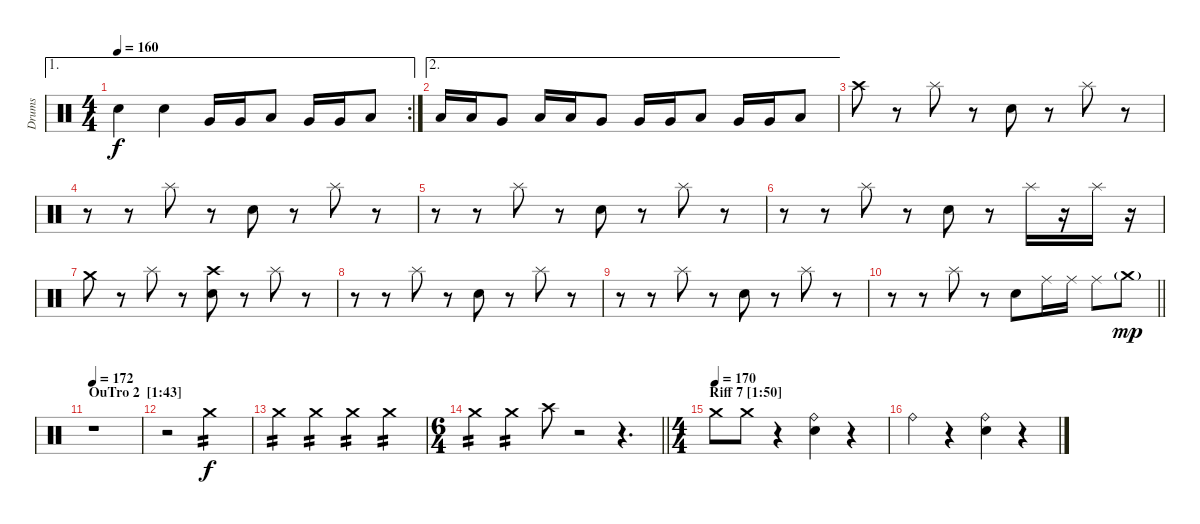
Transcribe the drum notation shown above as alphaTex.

\track ("Drums" "Drums") {instrument percussion}
\staff {score}
\articulation defaults
\ae 1
\rc 2
\ts (4 4)
\tempo 160
\clef neutral
\ks c "Electric Snare (hit)".4{dy f} "Electric Snare (hit)".4 "Very Low Tom (hit)".16 "Very Low Tom (hit)".16 "Low Floor Tom (hit)".8 "Very Low Tom (hit)".16 "Very Low Tom (hit)".16 "Low Floor Tom (hit)".8
|
\ae 2 "Low Tom (hit)".16 "Low Tom (hit)".16 "Very Low Tom (hit)".8 "Low Tom (hit)".16 "Low Tom (hit)".16 "Very Low Tom (hit)".8 "Very Low Tom (hit)".16 "Very Low Tom (hit)".16 "Low Floor Tom (hit)".8 "Very Low Tom (hit)".16 "Very Low Tom (hit)".16 "Low Floor Tom (hit)".8
|
"Crash high (hit)".8 r.8 "Splash (hit)".8 r.8 "Electric Snare (hit)".8 r.8 "Splash (hit)".8 r.8 |
r.8 r.8 "Splash (hit)".8 r.8 "Electric Snare (hit)".8 r.8 "Splash (hit)".8 r.8 |
r.8 r.8 "Splash (hit)".8 r.8 "Electric Snare (hit)".8 r.8 "Splash (hit)".8 r.8 |
r.8 r.8 "Splash (hit)".8 r.8 "Electric Snare (hit)".8 r.8 "Splash (hit)".16 r.16 "Splash (hit)".16 r.16 |
"Crash medium (hit)".8 r.8 "Splash (hit)".8 r.8 ("Crash high (hit)" "Electric Snare (hit)").8 r.8 "Splash (hit)".8 r.8 |
r.8 r.8 "Splash (hit)".8 r.8 "Electric Snare (hit)".8 r.8 "Splash (hit)".8 r.8 |
r.8 r.8 "Splash (hit)".8 r.8 "Electric Snare (hit)".8 r.8 "Splash (hit)".8 r.8 |
\barLineRight lightlight
r.8 r.8 "Splash (hit)".8 r.8 "Electric Snare (hit)".8 "Ride (middle)".16 "Ride (middle)".16 "Ride (middle)".8 "Crash medium (hit)"{g}.8{dy mp} |
\section ("" "OuTro 2  [1:43]")
\tempo 172
r.1 |
r.2 "Crash medium (hit)".2{tp 2 dy f volume 5} |
"Crash medium (hit)".4{tp 2 volume 7} "Crash medium (hit)".4{tp 2 volume 9} "Crash medium (hit)".4{tp 2 volume 11} "Crash medium (hit)".4{tp 2 volume 13} |
\ts (6 4)
\barLineRight lightlight "Crash medium (hit)".4{tp 2 volume 15} "Crash medium (hit)".4{tp 2} "Crash high (hit)".8
r.2 r.4{d} |
\ts (4 4)
\section ("" "Riff 7 [1:50]")
\tempo (170)
"Crash medium (hit)".8 "Crash medium (hit)".8 r.4 ("Ride (bell)" "Electric Snare (hit)").4 r.4 |
"Ride (bell)".4 r.4 ("Ride (bell)" "Electric Snare (hit)").4 r.4
